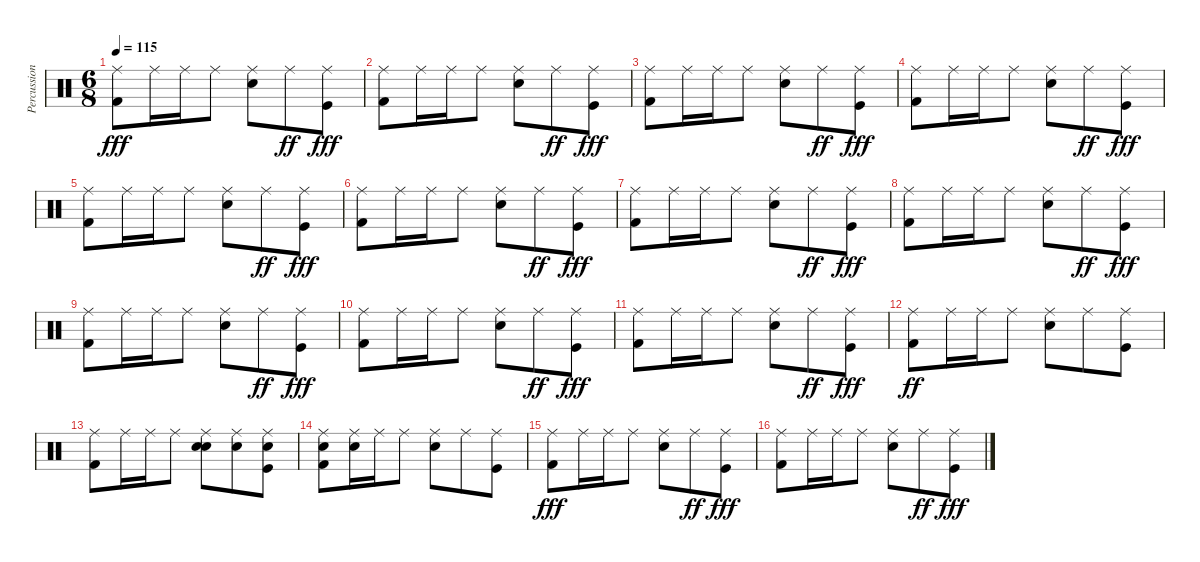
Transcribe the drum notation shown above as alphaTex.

\track ("Percussions" "Percussion") {instrument percussion}
\staff {score}
\articulation defaults
\ts (6 8)
\tempo 115
\clef neutral
\ks c
("Kick (hit) 2" "Ride (middle)").8{dy fff} "Ride (middle)".16 "Ride (middle)".16 "Ride (middle)".8 ("Snare (hit) 2" "Ride (middle)").8 "Ride (middle)".8{dy ff} ("Kick (hit)" "Ride (middle)").8{dy fff} |
("Kick (hit) 2" "Ride (middle)").8 "Ride (middle)".16 "Ride (middle)".16 "Ride (middle)".8 ("Snare (hit) 2" "Ride (middle)").8 "Ride (middle)".8{dy ff} ("Kick (hit)" "Ride (middle)").8{dy fff} |
("Kick (hit) 2" "Ride (middle)").8 "Ride (middle)".16 "Ride (middle)".16 "Ride (middle)".8 ("Snare (hit) 2" "Ride (middle)").8 "Ride (middle)".8{dy ff} ("Kick (hit)" "Ride (middle)").8{dy fff} |
("Kick (hit) 2" "Ride (middle)").8 "Ride (middle)".16 "Ride (middle)".16 "Ride (middle)".8 ("Snare (hit) 2" "Ride (middle)").8 "Ride (middle)".8{dy ff} ("Kick (hit)" "Ride (middle)").8{dy fff} |
("Kick (hit) 2" "Ride (middle)").8 "Ride (middle)".16 "Ride (middle)".16 "Ride (middle)".8 ("Snare (hit) 2" "Ride (middle)").8 "Ride (middle)".8{dy ff} ("Kick (hit)" "Ride (middle)").8{dy fff} |
("Kick (hit) 2" "Ride (middle)").8 "Ride (middle)".16 "Ride (middle)".16 "Ride (middle)".8 ("Snare (hit) 2" "Ride (middle)").8 "Ride (middle)".8{dy ff} ("Kick (hit)" "Ride (middle)").8{dy fff} |
("Kick (hit) 2" "Ride (middle)").8 "Ride (middle)".16 "Ride (middle)".16 "Ride (middle)".8 ("Snare (hit) 2" "Ride (middle)").8 "Ride (middle)".8{dy ff} ("Kick (hit)" "Ride (middle)").8{dy fff} |
("Kick (hit) 2" "Ride (middle)").8 "Ride (middle)".16 "Ride (middle)".16 "Ride (middle)".8 ("Snare (hit) 2" "Ride (middle)").8 "Ride (middle)".8{dy ff} ("Kick (hit)" "Ride (middle)").8{dy fff} |
("Kick (hit) 2" "Ride (middle)").8 "Ride (middle)".16 "Ride (middle)".16 "Ride (middle)".8 ("Snare (hit) 2" "Ride (middle)").8 "Ride (middle)".8{dy ff} ("Kick (hit)" "Ride (middle)").8{dy fff} |
("Kick (hit) 2" "Ride (middle)").8 "Ride (middle)".16 "Ride (middle)".16 "Ride (middle)".8 ("Snare (hit) 2" "Ride (middle)").8 "Ride (middle)".8{dy ff} ("Kick (hit)" "Ride (middle)").8{dy fff} |
("Kick (hit) 2" "Ride (middle)").8 "Ride (middle)".16 "Ride (middle)".16 "Ride (middle)".8 ("Snare (hit) 2" "Ride (middle)").8 "Ride (middle)".8{dy ff} ("Kick (hit)" "Ride (middle)").8{dy fff} |
("Kick (hit) 2" "Ride (middle)").8{dy ff} "Ride (middle)".16 "Ride (middle)".16 "Ride (middle)".8 ("Snare (hit) 2" "Ride (middle)").8 "Ride (middle)".8 ("Kick (hit)" "Ride (middle)").8 |
("Kick (hit) 2" "Ride (middle)").8 "Ride (middle)".16 "Ride (middle)".16 "Ride (middle)".8 ("Electric Snare (hit)" "Snare (hit) 2" "Ride (middle)").8 ("Electric Snare (hit)" "Ride (middle)").8 ("Kick (hit)" "Ride (middle)" "Electric Snare (hit)").8 |
("Electric Snare (hit)" "Kick (hit) 2" "Ride (middle)").8 ("Electric Snare (hit)" "Ride (middle)").16 "Ride (middle)".16 "Ride (middle)".8 ("Snare (hit) 2" "Ride (middle)").8 "Ride (middle)".8 ("Kick (hit)" "Ride (middle)").8 |
("Kick (hit) 2" "Ride (middle)").8{dy fff} "Ride (middle)".16 "Ride (middle)".16 "Ride (middle)".8 ("Snare (hit) 2" "Ride (middle)").8 "Ride (middle)".8{dy ff} ("Kick (hit)" "Ride (middle)").8{dy fff} |
("Kick (hit) 2" "Ride (middle)").8 "Ride (middle)".16 "Ride (middle)".16 "Ride (middle)".8 ("Snare (hit) 2" "Ride (middle)").8 "Ride (middle)".8{dy ff} ("Kick (hit)" "Ride (middle)").8{dy fff}
